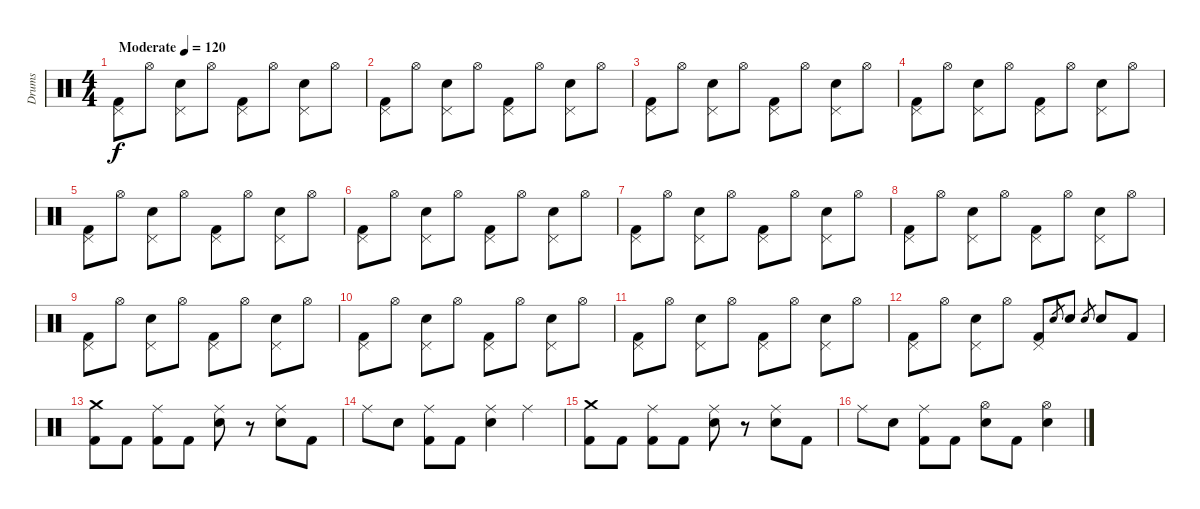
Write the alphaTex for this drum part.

\track ("Drums" "Drums") {instrument percussion}
\staff {score}
\articulation defaults
\ts (4 4)
\tempo (120 "Moderate")
\clef neutral
\ks c
("Pedal Hi-Hat (hit)" "Kick (hit) 2").8{dy f} "Hi-Hat (open)".8 ("Pedal Hi-Hat (hit)" "Electric Snare (hit)").8 "Hi-Hat (open)".8 ("Pedal Hi-Hat (hit)" "Kick (hit) 2").8 "Hi-Hat (open)".8 ("Pedal Hi-Hat (hit)" "Electric Snare (hit)").8 "Hi-Hat (open)".8 |
("Pedal Hi-Hat (hit)" "Kick (hit) 2").8 "Hi-Hat (open)".8 ("Pedal Hi-Hat (hit)" "Electric Snare (hit)").8 "Hi-Hat (open)".8 ("Pedal Hi-Hat (hit)" "Kick (hit) 2").8 "Hi-Hat (open)".8 ("Pedal Hi-Hat (hit)" "Electric Snare (hit)").8 "Hi-Hat (open)".8 |
("Pedal Hi-Hat (hit)" "Kick (hit) 2").8 "Hi-Hat (open)".8 ("Pedal Hi-Hat (hit)" "Electric Snare (hit)").8 "Hi-Hat (open)".8 ("Pedal Hi-Hat (hit)" "Kick (hit) 2").8 "Hi-Hat (open)".8 ("Pedal Hi-Hat (hit)" "Electric Snare (hit)").8 "Hi-Hat (open)".8 |
("Pedal Hi-Hat (hit)" "Kick (hit) 2").8 "Hi-Hat (open)".8 ("Pedal Hi-Hat (hit)" "Electric Snare (hit)").8 "Hi-Hat (open)".8 ("Pedal Hi-Hat (hit)" "Kick (hit) 2").8 "Hi-Hat (open)".8 ("Pedal Hi-Hat (hit)" "Electric Snare (hit)").8 "Hi-Hat (open)".8 |
("Pedal Hi-Hat (hit)" "Kick (hit) 2").8 "Hi-Hat (open)".8 ("Pedal Hi-Hat (hit)" "Electric Snare (hit)").8 "Hi-Hat (open)".8 ("Pedal Hi-Hat (hit)" "Kick (hit) 2").8 "Hi-Hat (open)".8 ("Pedal Hi-Hat (hit)" "Electric Snare (hit)").8 "Hi-Hat (open)".8 |
("Pedal Hi-Hat (hit)" "Kick (hit) 2").8 "Hi-Hat (open)".8 ("Pedal Hi-Hat (hit)" "Electric Snare (hit)").8 "Hi-Hat (open)".8 ("Pedal Hi-Hat (hit)" "Kick (hit) 2").8 "Hi-Hat (open)".8 ("Pedal Hi-Hat (hit)" "Electric Snare (hit)").8 "Hi-Hat (open)".8 |
("Pedal Hi-Hat (hit)" "Kick (hit) 2").8 "Hi-Hat (open)".8 ("Pedal Hi-Hat (hit)" "Electric Snare (hit)").8 "Hi-Hat (open)".8 ("Pedal Hi-Hat (hit)" "Kick (hit) 2").8 "Hi-Hat (open)".8 ("Pedal Hi-Hat (hit)" "Electric Snare (hit)").8 "Hi-Hat (open)".8 |
("Pedal Hi-Hat (hit)" "Kick (hit) 2").8 "Hi-Hat (open)".8 ("Pedal Hi-Hat (hit)" "Electric Snare (hit)").8 "Hi-Hat (open)".8 ("Pedal Hi-Hat (hit)" "Kick (hit) 2").8 "Hi-Hat (open)".8 ("Pedal Hi-Hat (hit)" "Electric Snare (hit)").8 "Hi-Hat (open)".8 |
("Pedal Hi-Hat (hit)" "Kick (hit) 2").8 "Hi-Hat (open)".8 ("Pedal Hi-Hat (hit)" "Electric Snare (hit)").8 "Hi-Hat (open)".8 ("Pedal Hi-Hat (hit)" "Kick (hit) 2").8 "Hi-Hat (open)".8 ("Pedal Hi-Hat (hit)" "Electric Snare (hit)").8 "Hi-Hat (open)".8 |
("Pedal Hi-Hat (hit)" "Kick (hit) 2").8 "Hi-Hat (open)".8 ("Pedal Hi-Hat (hit)" "Electric Snare (hit)").8 "Hi-Hat (open)".8 ("Pedal Hi-Hat (hit)" "Kick (hit) 2").8 "Hi-Hat (open)".8 ("Pedal Hi-Hat (hit)" "Electric Snare (hit)").8 "Hi-Hat (open)".8 |
("Pedal Hi-Hat (hit)" "Kick (hit) 2").8 "Hi-Hat (open)".8 ("Pedal Hi-Hat (hit)" "Electric Snare (hit)").8 "Hi-Hat (open)".8 ("Pedal Hi-Hat (hit)" "Kick (hit) 2").8 "Hi-Hat (open)".8 ("Pedal Hi-Hat (hit)" "Electric Snare (hit)").8 "Hi-Hat (open)".8 |
("Pedal Hi-Hat (hit)" "Kick (hit) 2").8 "Hi-Hat (open)".8 ("Pedal Hi-Hat (hit)" "Electric Snare (hit)").8 "Hi-Hat (open)".8 ("Pedal Hi-Hat (hit)" "Kick (hit) 2").8 "Electric Snare (hit)".8{gr} "Electric Snare (hit)".8 "Electric Snare (hit)".8{gr} "Electric Snare (hit)".8 "Kick (hit) 2".8 |
("Crash medium (hit)" "Kick (hit) 2").8 "Kick (hit) 2".8 ("Ride (middle)" "Kick (hit) 2").8 "Kick (hit) 2".8 ("Ride (middle)" "Electric Snare (hit)").8 r.8 ("Ride (middle)" "Electric Snare (hit)").8 "Kick (hit) 2".8 |
"Ride (middle)".8 "Electric Snare (hit)".8 ("Ride (middle)" "Kick (hit) 2").8 "Kick (hit) 2".8 ("Ride (middle)" "Electric Snare (hit)").4 "Ride (middle)".4 |
("Crash medium (hit)" "Kick (hit) 2").8 "Kick (hit) 2".8 ("Ride (middle)" "Kick (hit) 2").8 "Kick (hit) 2".8 ("Ride (middle)" "Electric Snare (hit)").8 r.8 ("Ride (middle)" "Electric Snare (hit)").8 "Kick (hit) 2".8 |
"Ride (middle)".8 "Electric Snare (hit)".8 ("Ride (middle)" "Kick (hit) 2").8 "Kick (hit) 2".8 ("Hi-Hat (open)" "Electric Snare (hit)").8 "Kick (hit) 2".8 ("Hi-Hat (open)" "Electric Snare (hit)").4
